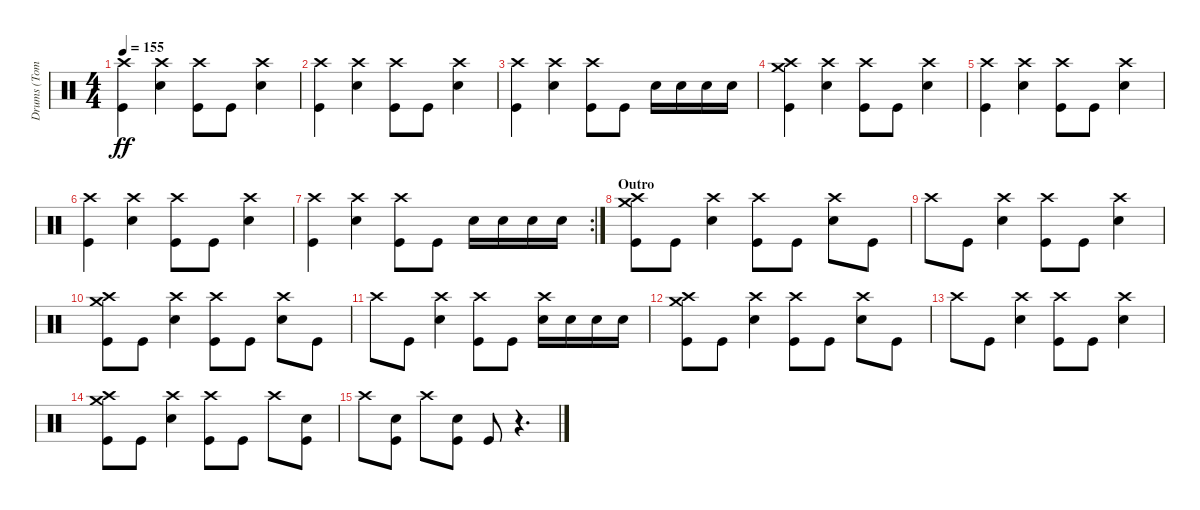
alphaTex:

\track ("Drums (Tommy Decker)" "Drums (Tom") {instrument percussion}
\staff {score}
\articulation defaults
\ts (4 4)
\tempo 155
\clef neutral
\ks c
("Crash high (hit)" "Kick (hit)").4{dy ff} ("Crash high (hit)" "Snare (hit) 2").4 ("Crash high (hit)" "Kick (hit)").8 "Kick (hit)".8 ("Crash high (hit)" "Snare (hit) 2").4 |
("Crash high (hit)" "Kick (hit)").4 ("Crash high (hit)" "Snare (hit) 2").4 ("Crash high (hit)" "Kick (hit)").8 "Kick (hit)".8 ("Crash high (hit)" "Snare (hit) 2").4 |
("Crash high (hit)" "Kick (hit)").4 ("Crash high (hit)" "Snare (hit) 2").4 ("Crash high (hit)" "Kick (hit)").8 "Kick (hit)".8 "Snare (hit) 2".16 "Snare (hit) 2".16 "Snare (hit) 2".16 "Snare (hit) 2".16 |
("Crash high (hit)" "Crash medium (hit)" "Kick (hit)").4 ("Crash high (hit)" "Snare (hit) 2").4 ("Crash high (hit)" "Kick (hit)").8 "Kick (hit)".8 ("Crash high (hit)" "Snare (hit) 2").4 |
("Crash high (hit)" "Kick (hit)").4 ("Crash high (hit)" "Snare (hit) 2").4 ("Crash high (hit)" "Kick (hit)").8 "Kick (hit)".8 ("Crash high (hit)" "Snare (hit) 2").4 |
("Crash high (hit)" "Kick (hit)").4 ("Crash high (hit)" "Snare (hit) 2").4 ("Crash high (hit)" "Kick (hit)").8 "Kick (hit)".8 ("Crash high (hit)" "Snare (hit) 2").4 |
\rc 2
("Crash high (hit)" "Kick (hit)").4 ("Crash high (hit)" "Snare (hit) 2").4 ("Crash high (hit)" "Kick (hit)").8 "Kick (hit)".8 "Snare (hit) 2".16 "Snare (hit) 2".16 "Snare (hit) 2".16 "Snare (hit) 2".16 |
\section ("" "Outro")
("Crash high (hit)" "Crash medium (hit)" "Kick (hit)").8 "Kick (hit)".8 ("Crash high (hit)" "Snare (hit) 2").4 ("Crash high (hit)" "Kick (hit)").8 "Kick (hit)".8 ("Crash high (hit)" "Snare (hit) 2").8 "Kick (hit)".8 |
"Crash high (hit)".8 "Kick (hit)".8 ("Crash high (hit)" "Snare (hit) 2").4 ("Crash high (hit)" "Kick (hit)").8 "Kick (hit)".8 ("Crash high (hit)" "Snare (hit) 2").4 |
("Crash high (hit)" "Crash medium (hit)" "Kick (hit)").8 "Kick (hit)".8 ("Crash high (hit)" "Snare (hit) 2").4 ("Crash high (hit)" "Kick (hit)").8 "Kick (hit)".8 ("Crash high (hit)" "Snare (hit) 2").8 "Kick (hit)".8 |
"Crash high (hit)".8 "Kick (hit)".8 ("Crash high (hit)" "Snare (hit) 2").4 ("Crash high (hit)" "Kick (hit)").8 "Kick (hit)".8 ("Crash high (hit)" "Snare (hit) 2").16 "Snare (hit) 2".16 "Snare (hit) 2".16 "Snare (hit) 2".16 |
("Crash high (hit)" "Crash medium (hit)" "Kick (hit)").8 "Kick (hit)".8 ("Crash high (hit)" "Snare (hit) 2").4 ("Crash high (hit)" "Kick (hit)").8 "Kick (hit)".8 ("Crash high (hit)" "Snare (hit) 2").8 "Kick (hit)".8 |
"Crash high (hit)".8 "Kick (hit)".8 ("Crash high (hit)" "Snare (hit) 2").4 ("Crash high (hit)" "Kick (hit)").8 "Kick (hit)".8 ("Crash high (hit)" "Snare (hit) 2").4 |
("Crash high (hit)" "Crash medium (hit)" "Kick (hit)").8 "Kick (hit)".8 ("Crash high (hit)" "Snare (hit) 2").4 ("Crash high (hit)" "Kick (hit)").8 "Kick (hit)".8 "Crash high (hit)".8 ("Snare (hit) 2" "Kick (hit)").8 |
"Crash high (hit)".8 ("Snare (hit) 2" "Kick (hit)").8 "Crash high (hit)".8 ("Snare (hit) 2" "Kick (hit)").8 "Kick (hit)".8 r.4{d}
